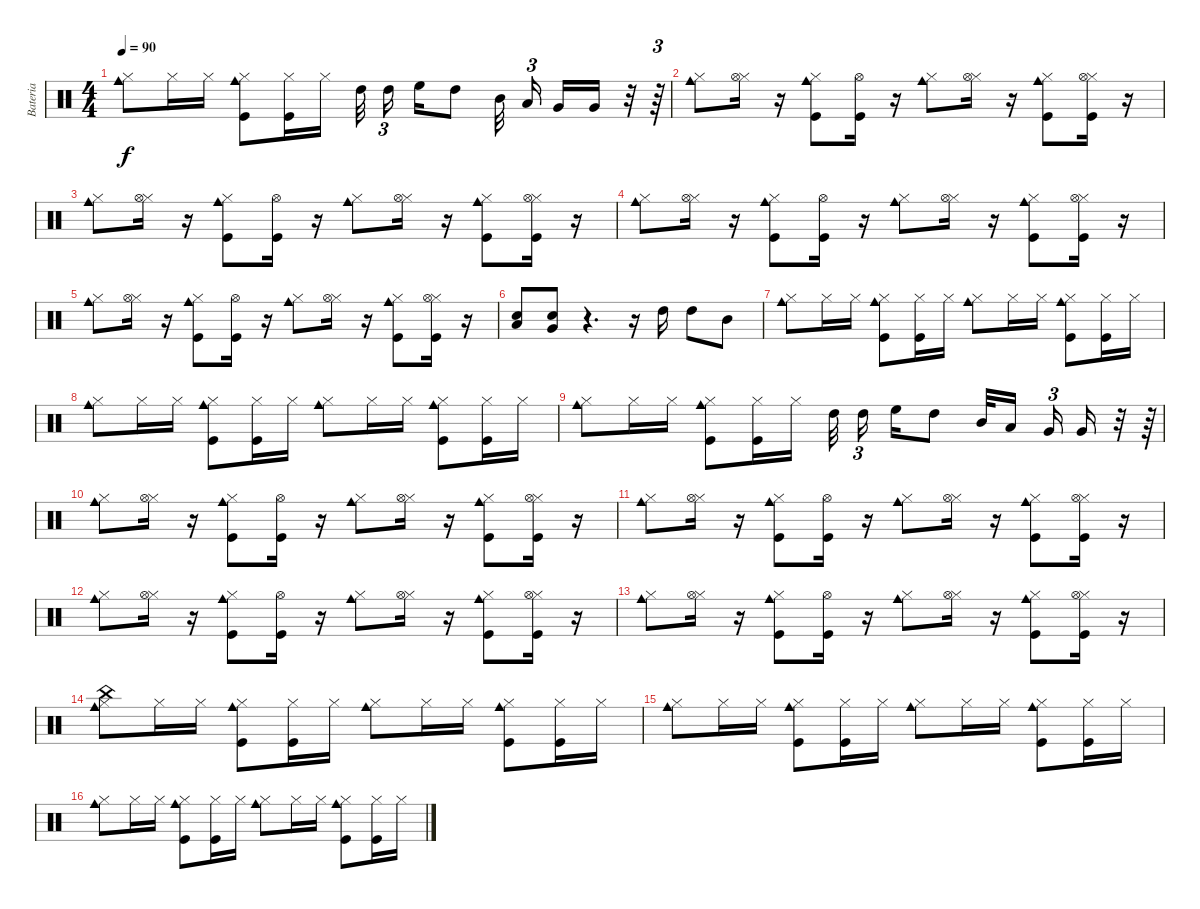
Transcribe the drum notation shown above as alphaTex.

\track ("Bateria" "Bateria") {instrument percussion}
\staff {score}
\articulation defaults
\ts (4 4)
\tempo 90
\clef neutral
\ks c
("Hi-Hat (closed)" "Cowbell medium (hit)").8{dy f} "Hi-Hat (closed)".16 "Hi-Hat (closed)".16 ("Hi-Hat (closed)" "Kick (hit)" "Cowbell medium (hit)").8 ("Hi-Hat (closed)" "Kick (hit)").16 "Hi-Hat (closed)".16 "High Tom (hit)".32{beam splitsecondary} "High Tom (hit)".16{tu (3 2) beam splitsecondary} "High Floor Tom (hit)".16 "High Tom (hit)".8 "Mid Tom (hit)".32{beam splitsecondary} "Low Tom (hit)".16{tu (3 2) beam splitsecondary} "Very Low Tom (hit)".16 "Very Low Tom (hit)".16 r.32 r.64{tu (3 2)} |
("Hi-Hat (closed)" "Cowbell medium (hit)").8 ("Hi-Hat (closed)" "Hi-Hat (open)").16 r.16 ("Hi-Hat (closed)" "Kick (hit)" "Cowbell medium (hit)").8 ("Kick (hit)" "Hi-Hat (open)").16 r.16 ("Hi-Hat (closed)" "Cowbell medium (hit)").8 ("Hi-Hat (closed)" "Hi-Hat (open)").16 r.16 ("Hi-Hat (closed)" "Kick (hit)" "Cowbell medium (hit)").8 ("Hi-Hat (closed)" "Kick (hit)" "Hi-Hat (open)").16 r.16 |
("Hi-Hat (closed)" "Cowbell medium (hit)").8 ("Hi-Hat (closed)" "Hi-Hat (open)").16 r.16 ("Hi-Hat (closed)" "Kick (hit)" "Cowbell medium (hit)").8 ("Kick (hit)" "Hi-Hat (open)").16 r.16 ("Hi-Hat (closed)" "Cowbell medium (hit)").8 ("Hi-Hat (closed)" "Hi-Hat (open)").16 r.16 ("Hi-Hat (closed)" "Kick (hit)" "Cowbell medium (hit)").8 ("Hi-Hat (closed)" "Kick (hit)" "Hi-Hat (open)").16 r.16 |
("Hi-Hat (closed)" "Cowbell medium (hit)").8 ("Hi-Hat (closed)" "Hi-Hat (open)").16 r.16 ("Hi-Hat (closed)" "Kick (hit)" "Cowbell medium (hit)").8 ("Kick (hit)" "Hi-Hat (open)").16 r.16 ("Hi-Hat (closed)" "Cowbell medium (hit)").8 ("Hi-Hat (closed)" "Hi-Hat (open)").16 r.16 ("Hi-Hat (closed)" "Kick (hit)" "Cowbell medium (hit)").8 ("Hi-Hat (closed)" "Kick (hit)" "Hi-Hat (open)").16 r.16 |
("Hi-Hat (closed)" "Cowbell medium (hit)").8 ("Hi-Hat (closed)" "Hi-Hat (open)").16 r.16 ("Hi-Hat (closed)" "Kick (hit)" "Cowbell medium (hit)").8 ("Kick (hit)" "Hi-Hat (open)").16 r.16 ("Hi-Hat (closed)" "Cowbell medium (hit)").8 ("Hi-Hat (closed)" "Hi-Hat (open)").16 r.16 ("Hi-Hat (closed)" "Kick (hit)" "Cowbell medium (hit)").8 ("Hi-Hat (closed)" "Kick (hit)" "Hi-Hat (open)").16 r.16 |
("Snare (hit) 2" "Low Tom (hit)").8 ("Snare (hit) 2" "Very Low Tom (hit)").8 r.4{d} r.16 "High Tom (hit)".16 "High Tom (hit)".8 "Mid Tom (hit)".8 |
("Hi-Hat (closed)" "Cowbell medium (hit)").8 "Hi-Hat (closed)".16 "Hi-Hat (closed)".16 ("Hi-Hat (closed)" "Kick (hit)" "Cowbell medium (hit)").8 ("Hi-Hat (closed)" "Kick (hit)").16 "Hi-Hat (closed)".16 ("Hi-Hat (closed)" "Cowbell medium (hit)").8 "Hi-Hat (closed)".16 "Hi-Hat (closed)".16 ("Hi-Hat (closed)" "Kick (hit)" "Cowbell medium (hit)").8 ("Hi-Hat (closed)" "Kick (hit)").16 "Hi-Hat (closed)".16 |
("Hi-Hat (closed)" "Cowbell medium (hit)").8 "Hi-Hat (closed)".16 "Hi-Hat (closed)".16 ("Hi-Hat (closed)" "Kick (hit)" "Cowbell medium (hit)").8 ("Hi-Hat (closed)" "Kick (hit)").16 "Hi-Hat (closed)".16 ("Hi-Hat (closed)" "Cowbell medium (hit)").8 "Hi-Hat (closed)".16 "Hi-Hat (closed)".16 ("Hi-Hat (closed)" "Kick (hit)" "Cowbell medium (hit)").8 ("Hi-Hat (closed)" "Kick (hit)").16 "Hi-Hat (closed)".16 |
("Hi-Hat (closed)" "Cowbell medium (hit)").8 "Hi-Hat (closed)".16 "Hi-Hat (closed)".16 ("Hi-Hat (closed)" "Kick (hit)" "Cowbell medium (hit)").8 ("Hi-Hat (closed)" "Kick (hit)").16 "Hi-Hat (closed)".16 "High Tom (hit)".32{beam splitsecondary} "High Tom (hit)".16{tu (3 2) beam splitsecondary} "High Floor Tom (hit)".16 "High Tom (hit)".8 "Mid Tom (hit)".32 "Low Tom (hit)".16{beam splitsecondary} "Very Low Tom (hit)".16{tu (3 2)} "Very Low Tom (hit)".16 r.32 r.64{tu (3 2)} |
("Hi-Hat (closed)" "Cowbell medium (hit)").8 ("Hi-Hat (closed)" "Hi-Hat (open)").16 r.16 ("Hi-Hat (closed)" "Kick (hit)" "Cowbell medium (hit)").8 ("Kick (hit)" "Hi-Hat (open)").16 r.16 ("Hi-Hat (closed)" "Cowbell medium (hit)").8 ("Hi-Hat (closed)" "Hi-Hat (open)").16 r.16 ("Hi-Hat (closed)" "Kick (hit)" "Cowbell medium (hit)").8 ("Hi-Hat (closed)" "Kick (hit)" "Hi-Hat (open)").16 r.16 |
("Hi-Hat (closed)" "Cowbell medium (hit)").8 ("Hi-Hat (closed)" "Hi-Hat (open)").16 r.16 ("Hi-Hat (closed)" "Kick (hit)" "Cowbell medium (hit)").8 ("Kick (hit)" "Hi-Hat (open)").16 r.16 ("Hi-Hat (closed)" "Cowbell medium (hit)").8 ("Hi-Hat (closed)" "Hi-Hat (open)").16 r.16 ("Hi-Hat (closed)" "Kick (hit)" "Cowbell medium (hit)").8 ("Hi-Hat (closed)" "Kick (hit)" "Hi-Hat (open)").16 r.16 |
("Hi-Hat (closed)" "Cowbell medium (hit)").8 ("Hi-Hat (closed)" "Hi-Hat (open)").16 r.16 ("Hi-Hat (closed)" "Kick (hit)" "Cowbell medium (hit)").8 ("Kick (hit)" "Hi-Hat (open)").16 r.16 ("Hi-Hat (closed)" "Cowbell medium (hit)").8 ("Hi-Hat (closed)" "Hi-Hat (open)").16 r.16 ("Hi-Hat (closed)" "Kick (hit)" "Cowbell medium (hit)").8 ("Hi-Hat (closed)" "Kick (hit)" "Hi-Hat (open)").16 r.16 |
("Hi-Hat (closed)" "Cowbell medium (hit)").8 ("Hi-Hat (closed)" "Hi-Hat (open)").16 r.16 ("Hi-Hat (closed)" "Kick (hit)" "Cowbell medium (hit)").8 ("Kick (hit)" "Hi-Hat (open)").16 r.16 ("Hi-Hat (closed)" "Cowbell medium (hit)").8 ("Hi-Hat (closed)" "Hi-Hat (open)").16 r.16 ("Hi-Hat (closed)" "Kick (hit)" "Cowbell medium (hit)").8 ("Hi-Hat (closed)" "Kick (hit)" "Hi-Hat (open)").16 r.16 |
("Hi-Hat (closed)" "China (hit)" "Cowbell medium (hit)").8 "Hi-Hat (closed)".16 "Hi-Hat (closed)".16 ("Hi-Hat (closed)" "Kick (hit)" "Cowbell medium (hit)").8 ("Hi-Hat (closed)" "Kick (hit)").16 "Hi-Hat (closed)".16 ("Hi-Hat (closed)" "Cowbell medium (hit)").8 "Hi-Hat (closed)".16 "Hi-Hat (closed)".16 ("Hi-Hat (closed)" "Kick (hit)" "Cowbell medium (hit)").8 ("Hi-Hat (closed)" "Kick (hit)").16 "Hi-Hat (closed)".16 |
("Hi-Hat (closed)" "Cowbell medium (hit)").8 "Hi-Hat (closed)".16 "Hi-Hat (closed)".16 ("Hi-Hat (closed)" "Kick (hit)" "Cowbell medium (hit)").8 ("Hi-Hat (closed)" "Kick (hit)").16 "Hi-Hat (closed)".16 ("Hi-Hat (closed)" "Cowbell medium (hit)").8 "Hi-Hat (closed)".16 "Hi-Hat (closed)".16 ("Hi-Hat (closed)" "Kick (hit)" "Cowbell medium (hit)").8 ("Hi-Hat (closed)" "Kick (hit)").16 "Hi-Hat (closed)".16 |
("Hi-Hat (closed)" "Cowbell medium (hit)").8 "Hi-Hat (closed)".16 "Hi-Hat (closed)".16 ("Hi-Hat (closed)" "Kick (hit)" "Cowbell medium (hit)").8 ("Hi-Hat (closed)" "Kick (hit)").16 "Hi-Hat (closed)".16 ("Hi-Hat (closed)" "Cowbell medium (hit)").8 "Hi-Hat (closed)".16 "Hi-Hat (closed)".16 ("Hi-Hat (closed)" "Kick (hit)" "Cowbell medium (hit)").8 ("Hi-Hat (closed)" "Kick (hit)").16 "Hi-Hat (closed)".16
